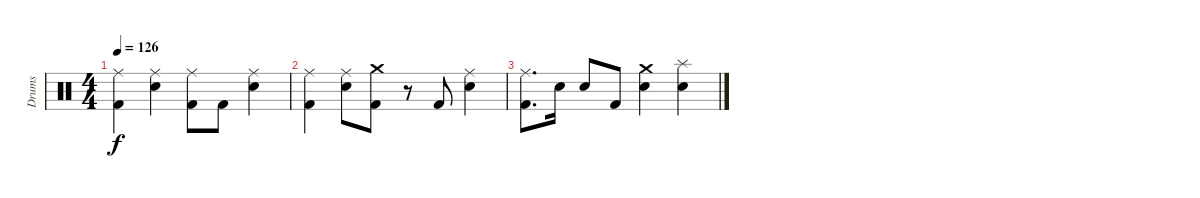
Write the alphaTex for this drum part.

\track ("Drums" "Drums") {instrument percussion}
\staff {score}
\articulation defaults
\ts (4 4)
\tempo 126
\clef neutral
\ks c
("Ride (middle)" "Kick (hit) 2").4{dy f} ("Ride (middle)" "Electric Snare (hit)").4 ("Ride (middle)" "Kick (hit) 2").8 "Kick (hit) 2".8 ("Ride (middle)" "Electric Snare (hit)").4 |
("Ride (middle)" "Kick (hit) 2").4 ("Ride (middle)" "Electric Snare (hit)").8 ("Crash medium (hit)" "Kick (hit) 2").8 r.8 "Kick (hit) 2".8 ("Ride (middle)" "Electric Snare (hit)").4 |
("Ride (middle)" "Kick (hit) 2").8{d} "Electric Snare (hit)".16 "Electric Snare (hit)".8 "Kick (hit) 2".8 ("Crash medium (hit)" "Electric Snare (hit)").4 ("Splash (hit)" "Electric Snare (hit)").4
